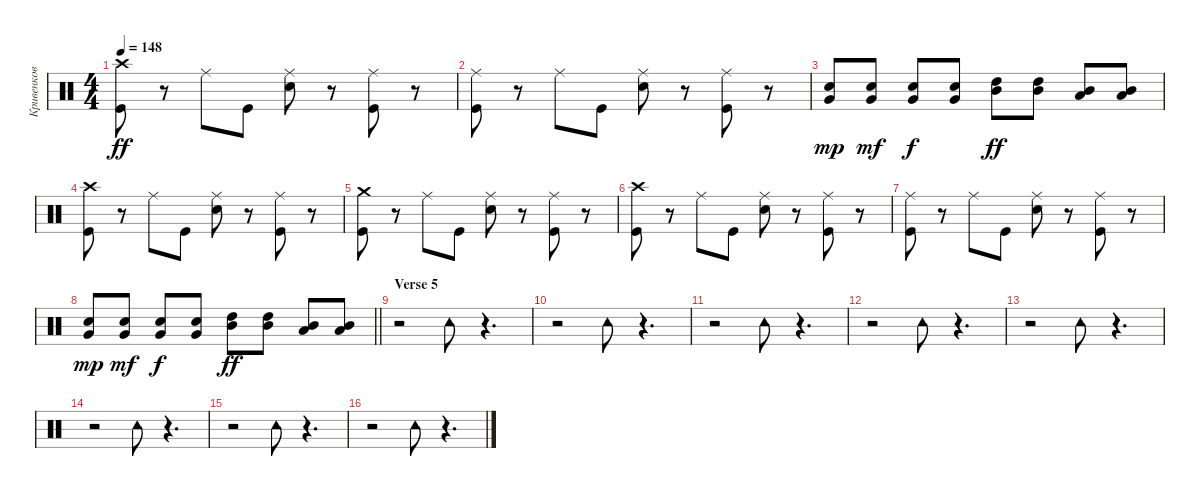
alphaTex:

\track ("Кривенков" "Кривенков") {instrument percussion}
\staff {score}
\articulation defaults
\ts (4 4)
\tempo 148
\clef neutral
\ks c
("Kick (hit)" "Crash high (hit)").8{dy ff} r.8 "Ride (middle)".8 "Kick (hit)".8 ("Snare (hit) 2" "Ride (middle)").8 r.8 ("Kick (hit)" "Ride (middle)").8 r.8 |
("Ride (middle)" "Kick (hit)").8 r.8 "Ride (middle)".8 "Kick (hit)".8 ("Snare (hit) 2" "Ride (middle)").8 r.8 ("Ride (middle)" "Kick (hit)").8 r.8 |
("Very Low Tom (hit)" "Snare (hit) 2").8{dy mp} ("Very Low Tom (hit)" "Snare (hit) 2").8{dy mf} ("Very Low Tom (hit)" "Snare (hit) 2").8{dy f} ("Snare (hit) 2" "Very Low Tom (hit)").8 ("Mid Tom (hit)" "High Tom (hit)").8{dy ff} ("Mid Tom (hit)" "High Tom (hit)").8 ("Low Tom (hit)" "Mid Tom (hit)").8 ("Mid Tom (hit)" "Low Tom (hit)").8 |
("Kick (hit)" "Crash high (hit)").8 r.8 "Ride (middle)".8 "Kick (hit)".8 ("Ride (middle)" "Snare (hit) 2").8 r.8 ("Kick (hit)" "Ride (middle)").8 r.8 |
("Kick (hit)" "Crash medium (hit)").8 r.8 "Ride (middle)".8 "Kick (hit)".8 ("Ride (middle)" "Snare (hit) 2").8 r.8 ("Ride (middle)" "Kick (hit)").8 r.8 |
("Kick (hit)" "Crash high (hit)").8 r.8 "Ride (middle)".8 "Kick (hit)".8 ("Snare (hit) 2" "Ride (middle)").8 r.8 ("Kick (hit)" "Ride (middle)").8 r.8 |
("Ride (middle)" "Kick (hit)").8 r.8 "Ride (middle)".8 "Kick (hit)".8 ("Snare (hit) 2" "Ride (middle)").8 r.8 ("Ride (middle)" "Kick (hit)").8 r.8 |
\barLineRight lightlight
("Very Low Tom (hit)" "Snare (hit) 2").8{dy mp} ("Very Low Tom (hit)" "Snare (hit) 2").8{dy mf} ("Very Low Tom (hit)" "Snare (hit) 2").8{dy f} ("Snare (hit) 2" "Very Low Tom (hit)").8 ("Mid Tom (hit)" "High Tom (hit)").8{dy ff} ("Mid Tom (hit)" "High Tom (hit)").8 ("Low Tom (hit)" "Mid Tom (hit)").8 ("Mid Tom (hit)" "Low Tom (hit)").8 |
\section ("" "Verse 5")
r.2 "Tambourine (hit)".8 r.4{d} |
r.2 "Tambourine (hit)".8 r.4{d} |
r.2 "Tambourine (hit)".8 r.4{d} |
r.2 "Tambourine (hit)".8 r.4{d} |
r.2 "Tambourine (hit)".8 r.4{d} |
r.2 "Tambourine (hit)".8 r.4{d} |
r.2 "Tambourine (hit)".8 r.4{d} |
r.2 "Tambourine (hit)".8 r.4{d}
